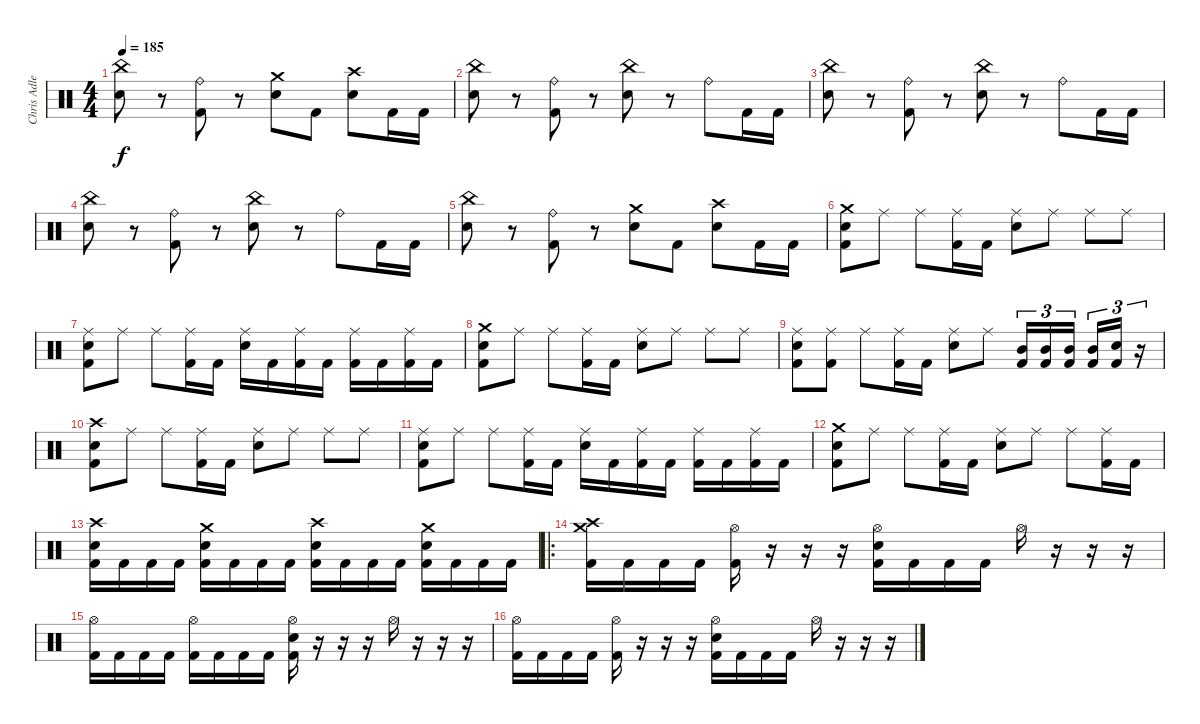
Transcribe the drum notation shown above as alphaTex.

\track ("Chris Adler" "Chris Adle") {instrument percussion}
\staff {score}
\articulation defaults
\ts (4 4)
\tempo 185
\clef neutral
\ks c
("China (hit)" "Electric Snare (hit)").8{dy f} r.8 ("Ride (bell)" "Kick (hit) 2").8 r.8 ("Crash medium (hit)" "Electric Snare (hit)").8 "Kick (hit) 2".8 ("Crash high (hit)" "Electric Snare (hit)").8 "Kick (hit) 2".16 "Kick (hit) 2".16 |
("China (hit)" "Electric Snare (hit)").8 r.8 ("Ride (bell)" "Kick (hit) 2").8 r.8 ("China (hit)" "Electric Snare (hit)").8 r.8 "Ride (bell)".8 "Kick (hit) 2".16 "Kick (hit) 2".16 |
("China (hit)" "Electric Snare (hit)").8 r.8 ("Ride (bell)" "Kick (hit) 2").8 r.8 ("China (hit)" "Electric Snare (hit)").8 r.8 "Ride (bell)".8 "Kick (hit) 2".16 "Kick (hit) 2".16 |
("China (hit)" "Electric Snare (hit)").8 r.8 ("Ride (bell)" "Kick (hit) 2").8 r.8 ("China (hit)" "Electric Snare (hit)").8 r.8 "Ride (bell)".8 "Kick (hit) 2".16 "Kick (hit) 2".16 |
("China (hit)" "Electric Snare (hit)").8 r.8 ("Ride (bell)" "Kick (hit) 2").8 r.8 ("Crash medium (hit)" "Electric Snare (hit)").8 "Kick (hit) 2".8 ("Crash high (hit)" "Electric Snare (hit)").8 "Kick (hit) 2".16 "Kick (hit) 2".16 |
("Crash medium (hit)" "Electric Snare (hit)" "Kick (hit) 2").8 "Ride (middle)".8 "Ride (middle)".8 ("Ride (middle)" "Kick (hit) 2").16 "Kick (hit) 2".16 ("Ride (middle)" "Electric Snare (hit)").8 "Ride (middle)".8 "Ride (middle)".8 "Ride (middle)".8 |
("Ride (middle)" "Electric Snare (hit)" "Kick (hit) 2").8 "Ride (middle)".8 "Ride (middle)".8 ("Ride (middle)" "Kick (hit) 2").16 "Kick (hit) 2".16 ("Ride (middle)" "Electric Snare (hit)").16 "Kick (hit) 2".16 ("Ride (middle)" "Kick (hit) 2").16 "Kick (hit) 2".16 ("Ride (middle)" "Kick (hit) 2").16 "Kick (hit) 2".16 ("Ride (middle)" "Kick (hit) 2").16 "Kick (hit) 2".16 |
("Crash medium (hit)" "Electric Snare (hit)" "Kick (hit) 2").8 "Ride (middle)".8 "Ride (middle)".8 ("Ride (middle)" "Kick (hit) 2").16 "Kick (hit) 2".16 ("Ride (middle)" "Electric Snare (hit)").8 "Ride (middle)".8 "Ride (middle)".8 "Ride (middle)".8 |
("Ride (middle)" "Electric Snare (hit)" "Kick (hit) 2").8 ("Ride (middle)" "Kick (hit) 2").8 "Ride (middle)".8 ("Ride (middle)" "Kick (hit) 2").16 "Kick (hit) 2".16 ("Ride (middle)" "Electric Snare (hit)").8 "Ride (middle)".8 ("Mid Tom (hit)" "Kick (hit) 2").16{tu (3 2)} ("Mid Tom (hit)" "Kick (hit) 2").16{tu (3 2)} ("Mid Tom (hit)" "Kick (hit) 2").16{tu (3 2)} ("Mid Tom (hit)" "Kick (hit) 2").16{tu (3 2)} ("Electric Snare (hit)" "Kick (hit) 2").16{tu (3 2)} r.16{tu (3 2)} |
("Crash high (hit)" "Electric Snare (hit)" "Kick (hit) 2").8 "Ride (middle)".8 "Ride (middle)".8 ("Ride (middle)" "Kick (hit) 2").16 "Kick (hit) 2".16 ("Ride (middle)" "Electric Snare (hit)").8 "Ride (middle)".8 "Ride (middle)".8 "Ride (middle)".8 |
("Ride (middle)" "Electric Snare (hit)" "Kick (hit) 2").8 "Ride (middle)".8 "Ride (middle)".8 ("Ride (middle)" "Kick (hit) 2").16 "Kick (hit) 2".16 ("Ride (middle)" "Electric Snare (hit)").16 "Kick (hit) 2".16 ("Ride (middle)" "Kick (hit) 2").16 "Kick (hit) 2".16 ("Ride (middle)" "Kick (hit) 2").16 "Kick (hit) 2".16 ("Ride (middle)" "Kick (hit) 2").16 "Kick (hit) 2".16 |
("Crash medium (hit)" "Electric Snare (hit)" "Kick (hit) 2").8 "Ride (middle)".8 "Ride (middle)".8 ("Ride (middle)" "Kick (hit) 2").16 "Kick (hit) 2".16 ("Ride (middle)" "Electric Snare (hit)").8 "Ride (middle)".8 "Ride (middle)".8 ("Ride (middle)" "Kick (hit) 2").16 "Kick (hit) 2".16 |
("Crash high (hit)" "Electric Snare (hit)" "Kick (hit) 2").16 "Kick (hit) 2".16 "Kick (hit) 2".16 "Kick (hit) 2".16 ("Crash medium (hit)" "Electric Snare (hit)" "Kick (hit) 2").16 "Kick (hit) 2".16 "Kick (hit) 2".16 "Kick (hit) 2".16 ("Crash high (hit)" "Electric Snare (hit)" "Kick (hit) 2").16 "Kick (hit) 2".16 "Kick (hit) 2".16 "Kick (hit) 2".16 ("Crash medium (hit)" "Electric Snare (hit)" "Kick (hit) 2").16 "Kick (hit) 2".16 "Kick (hit) 2".16 "Kick (hit) 2".16 |
\ro
("Crash high (hit)" "Crash medium (hit)" "Kick (hit) 2").16 "Kick (hit) 2".16 "Kick (hit) 2".16 "Kick (hit) 2".16 ("Hi-Hat (open)" "Kick (hit) 2").16 r.16 r.16 r.16 ("Hi-Hat (open)" "Electric Snare (hit)" "Kick (hit) 2").16 "Kick (hit) 2".16 "Kick (hit) 2".16 "Kick (hit) 2".16 "Hi-Hat (open)".16 r.16 r.16 r.16 |
("Hi-Hat (open)" "Kick (hit) 2").16 "Kick (hit) 2".16 "Kick (hit) 2".16 "Kick (hit) 2".16 ("Hi-Hat (open)" "Kick (hit) 2").16 "Kick (hit) 2".16 "Kick (hit) 2".16 "Kick (hit) 2".16 ("Hi-Hat (open)" "Electric Snare (hit)" "Kick (hit) 2").16 r.16 r.16 r.16 "Hi-Hat (open)".16 r.16 r.16 r.16 |
("Hi-Hat (open)" "Kick (hit) 2").16 "Kick (hit) 2".16 "Kick (hit) 2".16 "Kick (hit) 2".16 ("Hi-Hat (open)" "Kick (hit) 2").16 r.16 r.16 r.16 ("Hi-Hat (open)" "Electric Snare (hit)" "Kick (hit) 2").16 "Kick (hit) 2".16 "Kick (hit) 2".16 "Kick (hit) 2".16 "Hi-Hat (open)".16 r.16 r.16 r.16
